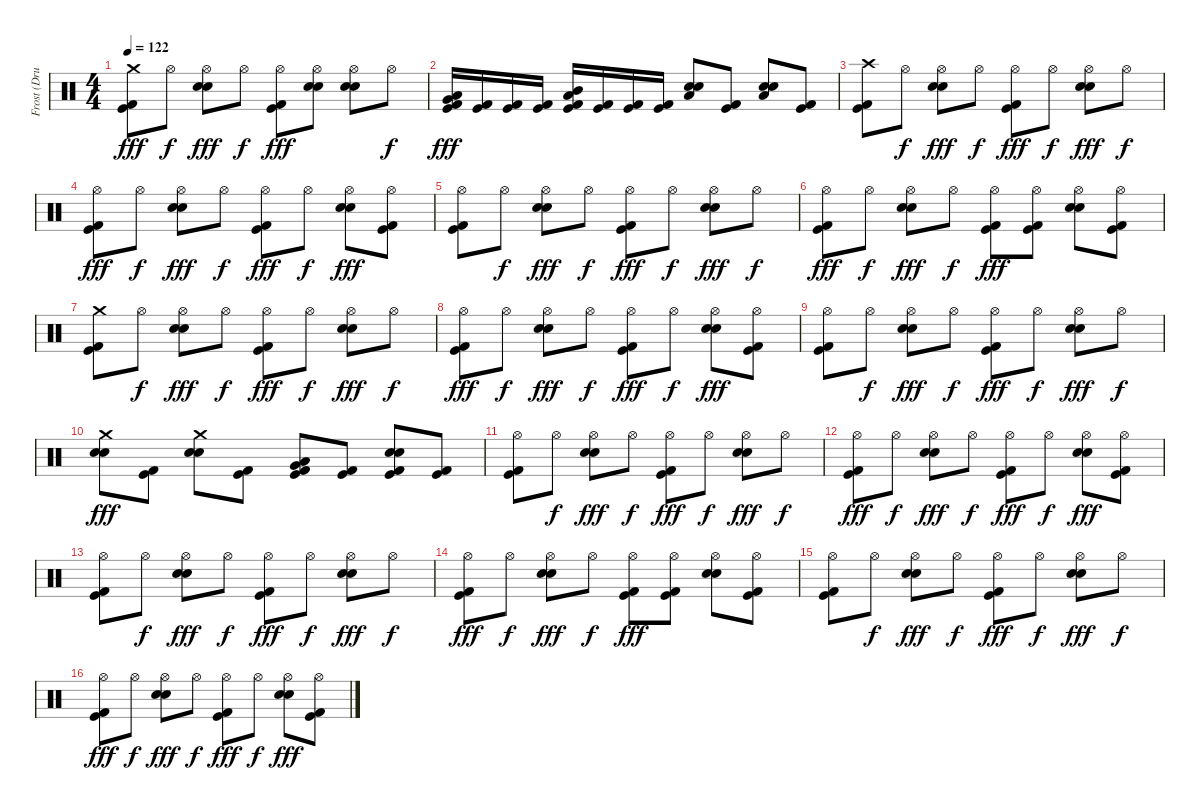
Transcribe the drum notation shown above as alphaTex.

\track ("Frost (Drums)" "Frost (Dru") {instrument percussion}
\staff {score}
\articulation defaults
\ts (4 4)
\tempo 122
\clef neutral
\ks c
("Crash medium (hit)" "Kick (hit)" "Kick (hit) 2").8{dy fff} "Hi-Hat (open)".8{dy f} ("Hi-Hat (open)" "Snare (hit) 2" "Electric Snare (hit)").8{dy fff} "Hi-Hat (open)".8{dy f} ("Hi-Hat (open)" "Kick (hit)" "Kick (hit) 2").8{dy fff} ("Hi-Hat (open)" "Snare (hit) 2" "Electric Snare (hit)").8 ("Hi-Hat (open)" "Snare (hit) 2" "Electric Snare (hit)").8 "Hi-Hat (open)".8{dy f} |
("Low Tom (hit)" "Very Low Tom (hit)" "Kick (hit)" "Kick (hit) 2").16{dy fff} ("Kick (hit)" "Kick (hit) 2").16 ("Kick (hit)" "Kick (hit) 2").16 ("Kick (hit)" "Kick (hit) 2").16 ("Mid Tom (hit)" "Low Tom (hit)" "Kick (hit)" "Kick (hit) 2").16 ("Kick (hit)" "Kick (hit) 2").16 ("Kick (hit)" "Kick (hit) 2").16 ("Kick (hit)" "Kick (hit) 2").16 ("Low Floor Tom (hit)" "Snare (hit) 2" "Electric Snare (hit)").8 ("Kick (hit)" "Kick (hit) 2").8 ("Low Floor Tom (hit)" "Snare (hit) 2" "Electric Snare (hit)").8 ("Kick (hit)" "Kick (hit) 2").8 |
("Crash high (hit)" "Kick (hit)" "Kick (hit) 2").8 "Hi-Hat (open)".8{dy f} ("Hi-Hat (open)" "Snare (hit) 2" "Electric Snare (hit)").8{dy fff} "Hi-Hat (open)".8{dy f} ("Hi-Hat (open)" "Kick (hit)" "Kick (hit) 2").8{dy fff} "Hi-Hat (open)".8{dy f} ("Hi-Hat (open)" "Snare (hit) 2" "Electric Snare (hit)").8{dy fff} "Hi-Hat (open)".8{dy f} |
("Hi-Hat (open)" "Kick (hit)" "Kick (hit) 2").8{dy fff} "Hi-Hat (open)".8{dy f} ("Hi-Hat (open)" "Snare (hit) 2" "Electric Snare (hit)").8{dy fff} "Hi-Hat (open)".8{dy f} ("Hi-Hat (open)" "Kick (hit)" "Kick (hit) 2").8{dy fff} "Hi-Hat (open)".8{dy f} ("Hi-Hat (open)" "Snare (hit) 2" "Electric Snare (hit)").8{dy fff} ("Hi-Hat (open)" "Kick (hit)" "Kick (hit) 2").8 |
("Hi-Hat (open)" "Kick (hit)" "Kick (hit) 2").8 "Hi-Hat (open)".8{dy f} ("Hi-Hat (open)" "Snare (hit) 2" "Electric Snare (hit)").8{dy fff} "Hi-Hat (open)".8{dy f} ("Hi-Hat (open)" "Kick (hit)" "Kick (hit) 2").8{dy fff} "Hi-Hat (open)".8{dy f} ("Hi-Hat (open)" "Snare (hit) 2" "Electric Snare (hit)").8{dy fff} "Hi-Hat (open)".8{dy f} |
("Hi-Hat (open)" "Kick (hit)" "Kick (hit) 2").8{dy fff} "Hi-Hat (open)".8{dy f} ("Hi-Hat (open)" "Snare (hit) 2" "Electric Snare (hit)").8{dy fff} "Hi-Hat (open)".8{dy f} ("Hi-Hat (open)" "Kick (hit)" "Kick (hit) 2").8{dy fff} ("Hi-Hat (open)" "Kick (hit)" "Kick (hit) 2").8 ("Hi-Hat (open)" "Snare (hit) 2" "Electric Snare (hit)").8 ("Hi-Hat (open)" "Kick (hit)" "Kick (hit) 2").8 |
("Crash medium (hit)" "Kick (hit)" "Kick (hit) 2").8 "Hi-Hat (open)".8{dy f} ("Hi-Hat (open)" "Snare (hit) 2" "Electric Snare (hit)").8{dy fff} "Hi-Hat (open)".8{dy f} ("Hi-Hat (open)" "Kick (hit)" "Kick (hit) 2").8{dy fff} "Hi-Hat (open)".8{dy f} ("Hi-Hat (open)" "Snare (hit) 2" "Electric Snare (hit)").8{dy fff} "Hi-Hat (open)".8{dy f} |
("Hi-Hat (open)" "Kick (hit)" "Kick (hit) 2").8{dy fff} "Hi-Hat (open)".8{dy f} ("Hi-Hat (open)" "Snare (hit) 2" "Electric Snare (hit)").8{dy fff} "Hi-Hat (open)".8{dy f} ("Hi-Hat (open)" "Kick (hit)" "Kick (hit) 2").8{dy fff} "Hi-Hat (open)".8{dy f} ("Hi-Hat (open)" "Snare (hit) 2" "Electric Snare (hit)").8{dy fff} ("Hi-Hat (open)" "Kick (hit)" "Kick (hit) 2").8 |
("Hi-Hat (open)" "Kick (hit)" "Kick (hit) 2").8 "Hi-Hat (open)".8{dy f} ("Hi-Hat (open)" "Snare (hit) 2" "Electric Snare (hit)").8{dy fff} "Hi-Hat (open)".8{dy f} ("Hi-Hat (open)" "Kick (hit)" "Kick (hit) 2").8{dy fff} "Hi-Hat (open)".8{dy f} ("Hi-Hat (open)" "Snare (hit) 2" "Electric Snare (hit)").8{dy fff} "Hi-Hat (open)".8{dy f} |
("Crash medium (hit)" "Snare (hit) 2" "Electric Snare (hit)").8{dy fff} ("Kick (hit)" "Kick (hit) 2").8 ("Crash medium (hit)" "Snare (hit) 2" "Electric Snare (hit)").8 ("Kick (hit)" "Kick (hit) 2").8 ("Very Low Tom (hit)" "Low Floor Tom (hit)" "Kick (hit)" "Kick (hit) 2").8 ("Kick (hit)" "Kick (hit) 2").8 ("Snare (hit) 2" "Electric Snare (hit)" "Kick (hit)" "Kick (hit) 2").8 ("Kick (hit)" "Kick (hit) 2").8 |
("Hi-Hat (open)" "Kick (hit)" "Kick (hit) 2").8 "Hi-Hat (open)".8{dy f} ("Hi-Hat (open)" "Snare (hit) 2" "Electric Snare (hit)").8{dy fff} "Hi-Hat (open)".8{dy f} ("Hi-Hat (open)" "Kick (hit)" "Kick (hit) 2").8{dy fff} "Hi-Hat (open)".8{dy f} ("Hi-Hat (open)" "Snare (hit) 2" "Electric Snare (hit)").8{dy fff} "Hi-Hat (open)".8{dy f} |
("Hi-Hat (open)" "Kick (hit)" "Kick (hit) 2").8{dy fff} "Hi-Hat (open)".8{dy f} ("Hi-Hat (open)" "Snare (hit) 2" "Electric Snare (hit)").8{dy fff} "Hi-Hat (open)".8{dy f} ("Hi-Hat (open)" "Kick (hit)" "Kick (hit) 2").8{dy fff} "Hi-Hat (open)".8{dy f} ("Hi-Hat (open)" "Snare (hit) 2" "Electric Snare (hit)").8{dy fff} ("Hi-Hat (open)" "Kick (hit)" "Kick (hit) 2").8 |
("Hi-Hat (open)" "Kick (hit)" "Kick (hit) 2").8 "Hi-Hat (open)".8{dy f} ("Hi-Hat (open)" "Snare (hit) 2" "Electric Snare (hit)").8{dy fff} "Hi-Hat (open)".8{dy f} ("Hi-Hat (open)" "Kick (hit)" "Kick (hit) 2").8{dy fff} "Hi-Hat (open)".8{dy f} ("Hi-Hat (open)" "Snare (hit) 2" "Electric Snare (hit)").8{dy fff} "Hi-Hat (open)".8{dy f} |
("Hi-Hat (open)" "Kick (hit)" "Kick (hit) 2").8{dy fff} "Hi-Hat (open)".8{dy f} ("Hi-Hat (open)" "Snare (hit) 2" "Electric Snare (hit)").8{dy fff} "Hi-Hat (open)".8{dy f} ("Hi-Hat (open)" "Kick (hit)" "Kick (hit) 2").8{dy fff} ("Hi-Hat (open)" "Kick (hit)" "Kick (hit) 2").8 ("Hi-Hat (open)" "Snare (hit) 2" "Electric Snare (hit)").8 ("Hi-Hat (open)" "Kick (hit)" "Kick (hit) 2").8 |
("Hi-Hat (open)" "Kick (hit)" "Kick (hit) 2").8 "Hi-Hat (open)".8{dy f} ("Hi-Hat (open)" "Snare (hit) 2" "Electric Snare (hit)").8{dy fff} "Hi-Hat (open)".8{dy f} ("Hi-Hat (open)" "Kick (hit)" "Kick (hit) 2").8{dy fff} "Hi-Hat (open)".8{dy f} ("Hi-Hat (open)" "Snare (hit) 2" "Electric Snare (hit)").8{dy fff} "Hi-Hat (open)".8{dy f} |
("Hi-Hat (open)" "Kick (hit)" "Kick (hit) 2").8{dy fff} "Hi-Hat (open)".8{dy f} ("Hi-Hat (open)" "Snare (hit) 2" "Electric Snare (hit)").8{dy fff} "Hi-Hat (open)".8{dy f} ("Hi-Hat (open)" "Kick (hit)" "Kick (hit) 2").8{dy fff} "Hi-Hat (open)".8{dy f} ("Hi-Hat (open)" "Snare (hit) 2" "Electric Snare (hit)").8{dy fff} ("Hi-Hat (open)" "Kick (hit)" "Kick (hit) 2").8
